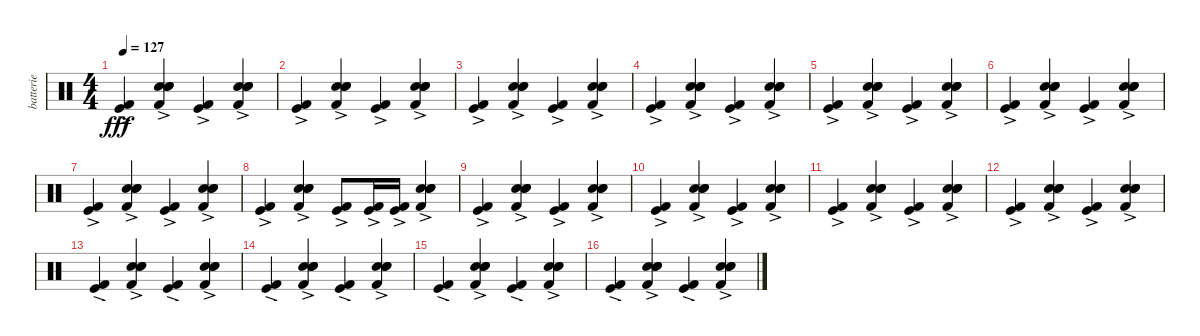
\track ("batterie" "batterie") {instrument percussion}
\staff {score}
\articulation defaults
\ts (4 4)
\tempo 127
\clef neutral
\ks c
("Kick (hit) 2" "Kick (hit)"{ac}).4{dy fff} ("Hand Clap (hit)"{ac} "Kick (hit) 2" "Electric Snare (hit)" "Snare (hit) 2").4 ("Kick (hit) 2" "Kick (hit)"{ac}).4 ("Hand Clap (hit)"{ac} "Kick (hit) 2" "Electric Snare (hit)" "Snare (hit) 2").4 |
("Kick (hit) 2" "Kick (hit)"{ac}).4 ("Hand Clap (hit)"{ac} "Kick (hit) 2" "Electric Snare (hit)" "Snare (hit) 2").4 ("Kick (hit) 2" "Kick (hit)"{ac}).4 ("Hand Clap (hit)"{ac} "Kick (hit) 2" "Electric Snare (hit)" "Snare (hit) 2").4 |
("Kick (hit) 2" "Kick (hit)"{ac}).4 ("Hand Clap (hit)"{ac} "Kick (hit) 2" "Electric Snare (hit)" "Snare (hit) 2").4 ("Kick (hit) 2" "Kick (hit)"{ac}).4 ("Hand Clap (hit)"{ac} "Kick (hit) 2" "Electric Snare (hit)" "Snare (hit) 2").4 |
("Kick (hit) 2" "Kick (hit)"{ac}).4 ("Hand Clap (hit)"{ac} "Kick (hit) 2" "Electric Snare (hit)" "Snare (hit) 2").4 ("Kick (hit) 2" "Kick (hit)"{ac}).4 ("Hand Clap (hit)"{ac} "Kick (hit) 2" "Electric Snare (hit)" "Snare (hit) 2").4 |
("Kick (hit) 2" "Kick (hit)"{ac}).4 ("Hand Clap (hit)"{ac} "Kick (hit) 2" "Electric Snare (hit)" "Snare (hit) 2").4 ("Kick (hit) 2" "Kick (hit)"{ac}).4 ("Hand Clap (hit)"{ac} "Kick (hit) 2" "Electric Snare (hit)" "Snare (hit) 2").4 |
("Kick (hit) 2" "Kick (hit)"{ac}).4 ("Hand Clap (hit)"{ac} "Kick (hit) 2" "Electric Snare (hit)" "Snare (hit) 2").4 ("Kick (hit) 2" "Kick (hit)"{ac}).4 ("Hand Clap (hit)"{ac} "Kick (hit) 2" "Electric Snare (hit)" "Snare (hit) 2").4 |
("Kick (hit) 2" "Kick (hit)"{ac}).4 ("Hand Clap (hit)"{ac} "Kick (hit) 2" "Electric Snare (hit)" "Snare (hit) 2").4 ("Kick (hit) 2" "Kick (hit)"{ac}).4 ("Hand Clap (hit)"{ac} "Kick (hit) 2" "Electric Snare (hit)" "Snare (hit) 2").4 |
("Kick (hit) 2" "Kick (hit)"{ac}).4 ("Hand Clap (hit)"{ac} "Kick (hit) 2" "Electric Snare (hit)" "Snare (hit) 2").4 ("Kick (hit) 2" "Kick (hit)"{ac}).8 ("Kick (hit) 2" "Kick (hit)"{ac}).16 ("Kick (hit) 2" "Kick (hit)"{ac}).16 ("Hand Clap (hit)"{ac} "Kick (hit) 2" "Electric Snare (hit)" "Snare (hit) 2").4 |
("Kick (hit) 2" "Kick (hit)"{ac}).4 ("Hand Clap (hit)"{ac} "Kick (hit) 2" "Electric Snare (hit)" "Snare (hit) 2").4 ("Kick (hit) 2" "Kick (hit)"{ac}).4 ("Hand Clap (hit)"{ac} "Kick (hit) 2" "Electric Snare (hit)" "Snare (hit) 2").4 |
("Kick (hit) 2" "Kick (hit)"{ac}).4 ("Hand Clap (hit)"{ac} "Kick (hit) 2" "Electric Snare (hit)" "Snare (hit) 2").4 ("Kick (hit) 2" "Kick (hit)"{ac}).4 ("Hand Clap (hit)"{ac} "Kick (hit) 2" "Electric Snare (hit)" "Snare (hit) 2").4 |
("Kick (hit) 2" "Kick (hit)"{ac}).4 ("Hand Clap (hit)"{ac} "Kick (hit) 2" "Electric Snare (hit)" "Snare (hit) 2").4 ("Kick (hit) 2" "Kick (hit)"{ac}).4 ("Hand Clap (hit)"{ac} "Kick (hit) 2" "Electric Snare (hit)" "Snare (hit) 2").4 |
("Kick (hit) 2" "Kick (hit)"{ac}).4 ("Hand Clap (hit)"{ac} "Kick (hit) 2" "Electric Snare (hit)" "Snare (hit) 2").4 ("Kick (hit) 2" "Kick (hit)"{ac}).4 ("Hand Clap (hit)"{ac} "Kick (hit) 2" "Electric Snare (hit)" "Snare (hit) 2").4 |
("Kick (hit) 2" "Kick (hit)"{ac}).4 ("Hand Clap (hit)"{ac} "Kick (hit) 2" "Electric Snare (hit)" "Snare (hit) 2").4 ("Kick (hit) 2" "Kick (hit)"{ac}).4 ("Hand Clap (hit)"{ac} "Kick (hit) 2" "Electric Snare (hit)" "Snare (hit) 2").4 |
("Kick (hit) 2" "Kick (hit)"{ac}).4 ("Hand Clap (hit)"{ac} "Kick (hit) 2" "Electric Snare (hit)" "Snare (hit) 2").4 ("Kick (hit) 2" "Kick (hit)"{ac}).4 ("Hand Clap (hit)"{ac} "Kick (hit) 2" "Electric Snare (hit)" "Snare (hit) 2").4 |
("Kick (hit) 2" "Kick (hit)"{ac}).4 ("Hand Clap (hit)"{ac} "Kick (hit) 2" "Electric Snare (hit)" "Snare (hit) 2").4 ("Kick (hit) 2" "Kick (hit)"{ac}).4 ("Hand Clap (hit)"{ac} "Kick (hit) 2" "Electric Snare (hit)" "Snare (hit) 2").4 |
("Kick (hit) 2" "Kick (hit)"{ac}).4 ("Hand Clap (hit)"{ac} "Kick (hit) 2" "Electric Snare (hit)" "Snare (hit) 2").4 ("Kick (hit) 2" "Kick (hit)"{ac}).4 ("Hand Clap (hit)"{ac} "Kick (hit) 2" "Electric Snare (hit)" "Snare (hit) 2").4
